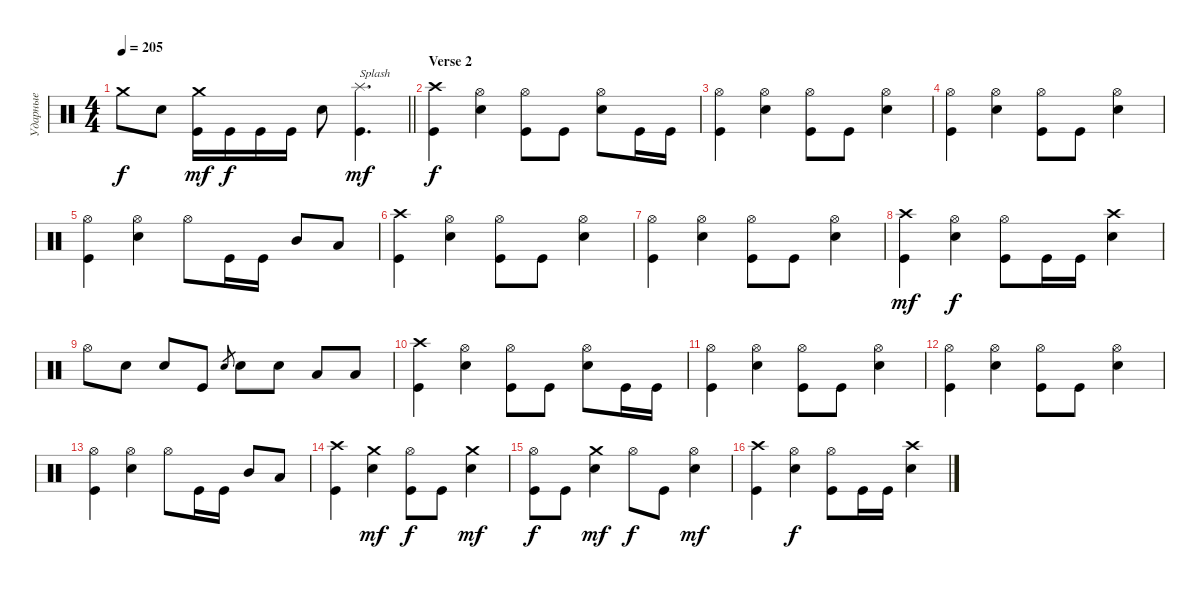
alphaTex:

\track ("Ударные" "Ударные") {instrument percussion}
\staff {score}
\articulation defaults
\ts (4 4)
\tempo 205
\clef neutral
\barLineRight lightlight
\ks aminor "Crash medium (hit)"{t}.8{dy f} "Snare (hit) 2".8
("Kick (hit)" "Crash medium (hit)").16{dy mf} "Kick (hit)".16{dy f} "Kick (hit)".16 "Kick (hit)".16 "Snare (hit) 2".8 ("Kick (hit)" "Splash (hit)").4{d txt "Splash" dy mf} |
\section ("" "Verse 2")
("Kick (hit)" "Crash high (hit)").4{dy f} ("Snare (hit) 2" "Hi-Hat (open)").4 ("Kick (hit)" "Hi-Hat (open)").8 "Kick (hit)".8 ("Snare (hit) 2" "Hi-Hat (open)").8 "Kick (hit)".16 "Kick (hit)".16 |
("Kick (hit)" "Hi-Hat (open)").4 ("Snare (hit) 2" "Hi-Hat (open)").4 ("Kick (hit)" "Hi-Hat (open)").8 "Kick (hit)".8 ("Snare (hit) 2" "Hi-Hat (open)").4 |
("Kick (hit)" "Hi-Hat (open)").4 ("Snare (hit) 2" "Hi-Hat (open)").4 ("Kick (hit)" "Hi-Hat (open)").8 "Kick (hit)".8 ("Snare (hit) 2" "Hi-Hat (open)").4 |
("Kick (hit)" "Hi-Hat (open)").4 ("Snare (hit) 2" "Hi-Hat (open)").4 "Hi-Hat (open)".8 "Kick (hit)".16 "Kick (hit)".16 "Mid Tom (hit)".8 "Low Tom (hit)".8 |
("Kick (hit)" "Crash high (hit)").4 ("Snare (hit) 2" "Hi-Hat (open)").4 ("Kick (hit)" "Hi-Hat (open)").8 "Kick (hit)".8 ("Snare (hit) 2" "Hi-Hat (open)").4 |
("Kick (hit)" "Hi-Hat (open)").4 ("Snare (hit) 2" "Hi-Hat (open)").4 ("Kick (hit)" "Hi-Hat (open)").8 "Kick (hit)".8 ("Snare (hit) 2" "Hi-Hat (open)").4 |
("Kick (hit)" "Crash high (hit)").4{dy mf} ("Snare (hit) 2" "Hi-Hat (open)").4{dy f} ("Kick (hit)" "Hi-Hat (open)").8 "Kick (hit)".16 "Kick (hit)".16 ("Snare (hit) 2" "Crash high (hit)").4 |
"Hi-Hat (open)".8 "Snare (hit) 2".8 "Snare (hit) 2".8 "Kick (hit)".8 "Snare (hit) 2".8{gr} "Snare (hit) 2".8 "Snare (hit) 2".8 "Low Tom (hit)".8 "Low Tom (hit)".8 |
("Kick (hit)" "Crash high (hit)").4 ("Snare (hit) 2" "Hi-Hat (open)").4 ("Kick (hit)" "Hi-Hat (open)").8 "Kick (hit)".8 ("Snare (hit) 2" "Hi-Hat (open)").8 "Kick (hit)".16 "Kick (hit)".16 |
("Kick (hit)" "Hi-Hat (open)").4 ("Snare (hit) 2" "Hi-Hat (open)").4 ("Kick (hit)" "Hi-Hat (open)").8 "Kick (hit)".8 ("Snare (hit) 2" "Hi-Hat (open)").4 |
("Kick (hit)" "Hi-Hat (open)").4 ("Snare (hit) 2" "Hi-Hat (open)").4 ("Kick (hit)" "Hi-Hat (open)").8 "Kick (hit)".8 ("Snare (hit) 2" "Hi-Hat (open)").4 |
("Kick (hit)" "Hi-Hat (open)").4 ("Snare (hit) 2" "Hi-Hat (open)").4 "Hi-Hat (open)".8 "Kick (hit)".16 "Kick (hit)".16 "Mid Tom (hit)".8 "Low Tom (hit)".8 |
("Kick (hit)" "Crash high (hit)").4 ("Snare (hit) 2" "Crash medium (hit)").4{dy mf} ("Kick (hit)" "Hi-Hat (open)").8{dy f} "Kick (hit)".8 ("Snare (hit) 2" "Crash medium (hit)").4{dy mf} |
("Kick (hit)" "Hi-Hat (open)").8{dy f} "Kick (hit)".8 ("Snare (hit) 2" "Crash medium (hit)").4{dy mf} "Hi-Hat (open)".8{dy f} "Kick (hit)".8 ("Snare (hit) 2" "Hi-Hat (open)").4{dy mf} |
("Kick (hit)" "Crash high (hit)").4 ("Snare (hit) 2" "Hi-Hat (open)").4{dy f} ("Kick (hit)" "Hi-Hat (open)").8 "Kick (hit)".16 "Kick (hit)".16 ("Snare (hit) 2" "Crash high (hit)").4
